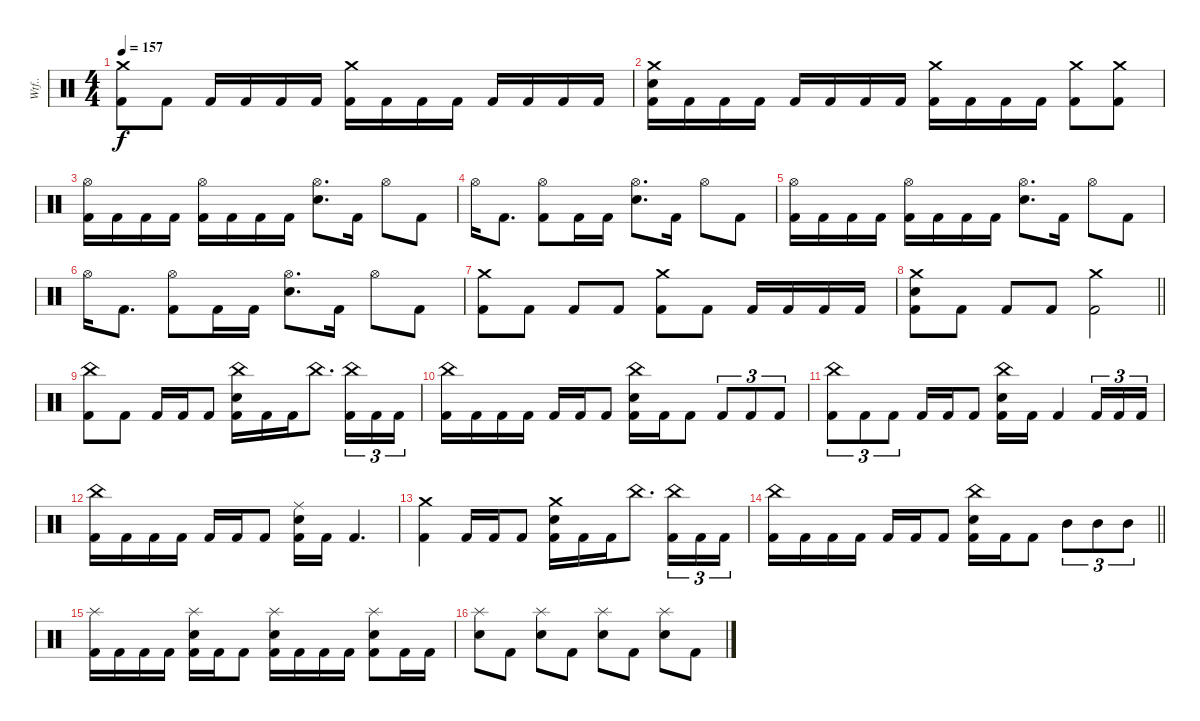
\track ("Wtf.." "Wtf..") {instrument percussion}
\staff {score}
\articulation defaults
\ts (4 4)
\tempo 157
\clef neutral
\ks c
("Crash medium (hit)" "Kick (hit) 2").8{dy f} "Kick (hit) 2".8 "Kick (hit) 2".16 "Kick (hit) 2".16 "Kick (hit) 2".16 "Kick (hit) 2".16 ("Crash medium (hit)" "Kick (hit) 2").16 "Kick (hit) 2".16 "Kick (hit) 2".16 "Kick (hit) 2".16 "Kick (hit) 2".16 "Kick (hit) 2".16 "Kick (hit) 2".16 "Kick (hit) 2".16 |
("Crash medium (hit)" "Electric Snare (hit)" "Kick (hit) 2").16 "Kick (hit) 2".16 "Kick (hit) 2".16 "Kick (hit) 2".16 "Kick (hit) 2".16 "Kick (hit) 2".16 "Kick (hit) 2".16 "Kick (hit) 2".16 ("Crash medium (hit)" "Kick (hit) 2").16 "Kick (hit) 2".16 "Kick (hit) 2".16 "Kick (hit) 2".16 ("Crash medium (hit)" "Kick (hit) 2").8 ("Crash medium (hit)" "Kick (hit) 2").8 |
("Hi-Hat (open)" "Kick (hit) 2").16 "Kick (hit) 2".16 "Kick (hit) 2".16 "Kick (hit) 2".16 ("Hi-Hat (open)" "Kick (hit) 2").16 "Kick (hit) 2".16 "Kick (hit) 2".16 "Kick (hit) 2".16 ("Hi-Hat (open)" "Electric Snare (hit)").8{d} "Kick (hit) 2".16 "Hi-Hat (open)".8 "Kick (hit) 2".8 |
"Hi-Hat (open)".16 "Kick (hit) 2".8{d} ("Hi-Hat (open)" "Kick (hit) 2").8 "Kick (hit) 2".16 "Kick (hit) 2".16 ("Hi-Hat (open)" "Electric Snare (hit)").8{d} "Kick (hit) 2".16 "Hi-Hat (open)".8 "Kick (hit) 2".8 |
("Hi-Hat (open)" "Kick (hit) 2").16 "Kick (hit) 2".16 "Kick (hit) 2".16 "Kick (hit) 2".16 ("Hi-Hat (open)" "Kick (hit) 2").16 "Kick (hit) 2".16 "Kick (hit) 2".16 "Kick (hit) 2".16 ("Hi-Hat (open)" "Electric Snare (hit)").8{d} "Kick (hit) 2".16 "Hi-Hat (open)".8 "Kick (hit) 2".8 |
"Hi-Hat (open)".16 "Kick (hit) 2".8{d} ("Hi-Hat (open)" "Kick (hit) 2").8 "Kick (hit) 2".16 "Kick (hit) 2".16 ("Hi-Hat (open)" "Electric Snare (hit)").8{d} "Kick (hit) 2".16 "Hi-Hat (open)".8 "Kick (hit) 2".8 |
("Crash medium (hit)" "Kick (hit) 2").8 "Kick (hit) 2".8 "Kick (hit) 2".8 "Kick (hit) 2".8 ("Crash medium (hit)" "Kick (hit) 2").8 "Kick (hit) 2".8 "Kick (hit) 2".16 "Kick (hit) 2".16 "Kick (hit) 2".16 "Kick (hit) 2".16 |
\barLineRight lightlight
("Crash medium (hit)" "Electric Snare (hit)" "Kick (hit) 2").8 "Kick (hit) 2".8 "Kick (hit) 2".8 "Kick (hit) 2".8 ("Crash medium (hit)" "Kick (hit) 2").2 |
\section ("" "")
("China (hit)" "Kick (hit) 2").8 "Kick (hit) 2".8 "Kick (hit) 2".16 "Kick (hit) 2".16 "Kick (hit) 2".8 ("China (hit)" "Electric Snare (hit)" "Kick (hit) 2").16 "Kick (hit) 2".16 "Kick (hit) 2".16 "China (hit)".8{d} ("China (hit)" "Kick (hit) 2").16{tu (3 2)} "Kick (hit) 2".16{tu (3 2)} "Kick (hit) 2".16{tu (3 2)} |
("China (hit)" "Kick (hit) 2").16 "Kick (hit) 2".16 "Kick (hit) 2".16 "Kick (hit) 2".16 "Kick (hit) 2".16 "Kick (hit) 2".16 "Kick (hit) 2".8 ("China (hit)" "Electric Snare (hit)" "Kick (hit) 2").16 "Kick (hit) 2".16 "Kick (hit) 2".8 "Kick (hit) 2".8{tu (3 2)} "Kick (hit) 2".8{tu (3 2)} "Kick (hit) 2".8{tu (3 2)} |
("China (hit)" "Kick (hit) 2").8{tu (3 2)} "Kick (hit) 2".8{tu (3 2)} "Kick (hit) 2".8{tu (3 2)} "Kick (hit) 2".16 "Kick (hit) 2".16 "Kick (hit) 2".8 ("China (hit)" "Electric Snare (hit)" "Kick (hit) 2").16 "Kick (hit) 2".16 "Kick (hit) 2".4 "Kick (hit) 2".16{tu (3 2)} "Kick (hit) 2".16{tu (3 2)} "Kick (hit) 2".16{tu (3 2)} |
("China (hit)" "Kick (hit) 2").16 "Kick (hit) 2".16 "Kick (hit) 2".16 "Kick (hit) 2".16 "Kick (hit) 2".16 "Kick (hit) 2".16 "Kick (hit) 2".8 ("Ride (middle)" "Electric Snare (hit)" "Kick (hit) 2").16 "Kick (hit) 2".16 "Kick (hit) 2".4{d} |
("Crash medium (hit)" "Kick (hit) 2").4 "Kick (hit) 2".16 "Kick (hit) 2".16 "Kick (hit) 2".8 ("Crash medium (hit)" "Electric Snare (hit)" "Kick (hit) 2").16 "Kick (hit) 2".16 "Kick (hit) 2".16 "China (hit)".8{d} ("China (hit)" "Kick (hit) 2").16{tu (3 2)} "Kick (hit) 2".16{tu (3 2)} "Kick (hit) 2".16{tu (3 2)} |
\barLineRight lightlight
("China (hit)" "Kick (hit) 2").16 "Kick (hit) 2".16 "Kick (hit) 2".16 "Kick (hit) 2".16 "Kick (hit) 2".16 "Kick (hit) 2".16 "Kick (hit) 2".8 ("China (hit)" "Electric Snare (hit)" "Kick (hit) 2").16 "Kick (hit) 2".16 "Kick (hit) 2".8 "Mid Tom (hit)".8{tu (3 2)} "Mid Tom (hit)".8{tu (3 2)} "Mid Tom (hit)".8{tu (3 2)} |
\section ("" "")
("Splash (hit)" "Kick (hit) 2").16 "Kick (hit) 2".16 "Kick (hit) 2".16 "Kick (hit) 2".16 ("Splash (hit)" "Electric Snare (hit)" "Kick (hit) 2").16 "Kick (hit) 2".16 "Kick (hit) 2".8 ("Splash (hit)" "Electric Snare (hit)" "Kick (hit) 2").16 "Kick (hit) 2".16 "Kick (hit) 2".16 "Kick (hit) 2".16 ("Splash (hit)" "Electric Snare (hit)" "Kick (hit) 2").8 "Kick (hit) 2".16 "Kick (hit) 2".16 |
("Splash (hit)" "Electric Snare (hit)").8 "Kick (hit) 2".8 ("Splash (hit)" "Electric Snare (hit)").8 "Kick (hit) 2".8 ("Splash (hit)" "Electric Snare (hit)").8 "Kick (hit) 2".8 ("Splash (hit)" "Electric Snare (hit)").8 "Kick (hit) 2".8
